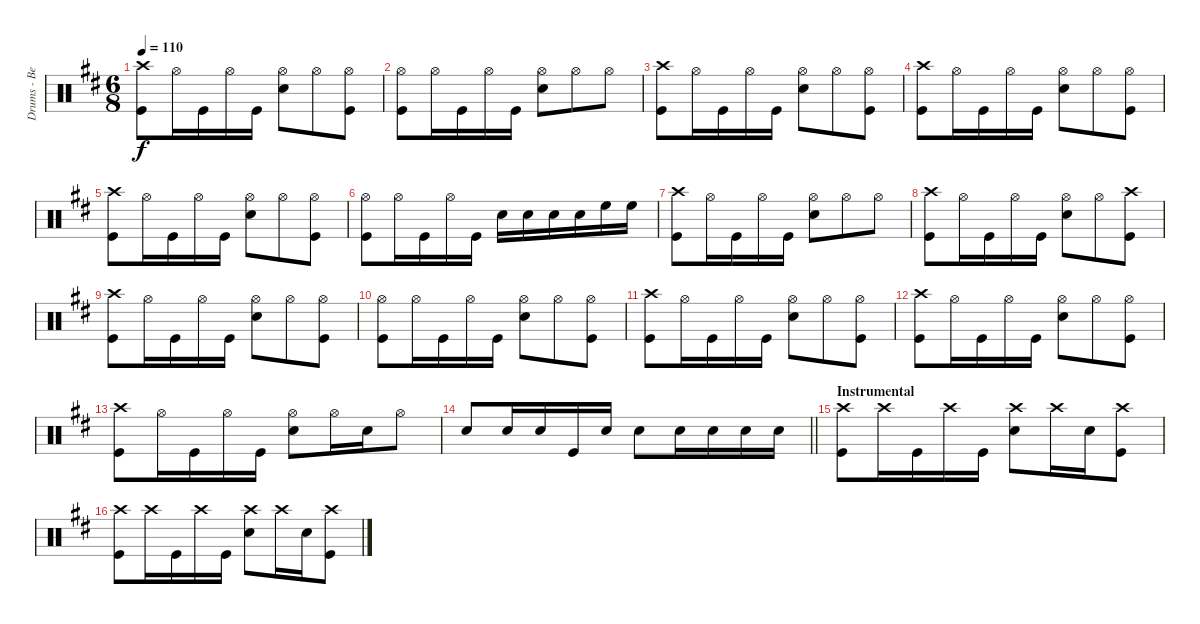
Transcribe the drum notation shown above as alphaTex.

\track ("Drums - Ben Johnston" "Drums - Be") {instrument percussion}
\staff {score}
\articulation defaults
\ts (6 8)
\tempo 110
\clef neutral
\ks d
("Crash high (hit)" "Kick (hit)").8{dy f} "Hi-Hat (open)".16 "Kick (hit)".16 "Hi-Hat (open)".16 "Kick (hit)".16 ("Hi-Hat (open)" "Snare (hit) 2").8 "Hi-Hat (open)".8 ("Hi-Hat (open)" "Kick (hit)").8 |
("Hi-Hat (open)" "Kick (hit)").8 "Hi-Hat (open)".16 "Kick (hit)".16 "Hi-Hat (open)".16 "Kick (hit)".16 ("Hi-Hat (open)" "Snare (hit) 2").8 "Hi-Hat (open)".8 "Hi-Hat (open)".8 |
("Crash high (hit)" "Kick (hit)").8 "Hi-Hat (open)".16 "Kick (hit)".16 "Hi-Hat (open)".16 "Kick (hit)".16 ("Hi-Hat (open)" "Snare (hit) 2").8 "Hi-Hat (open)".8 ("Hi-Hat (open)" "Kick (hit)").8 |
("Crash high (hit)" "Kick (hit)").8 "Hi-Hat (open)".16 "Kick (hit)".16 "Hi-Hat (open)".16 "Kick (hit)".16 ("Hi-Hat (open)" "Snare (hit) 2").8 "Hi-Hat (open)".8 ("Hi-Hat (open)" "Kick (hit)").8 |
("Crash high (hit)" "Kick (hit)").8 "Hi-Hat (open)".16 "Kick (hit)".16 "Hi-Hat (open)".16 "Kick (hit)".16 ("Hi-Hat (open)" "Snare (hit) 2").8 "Hi-Hat (open)".8 ("Hi-Hat (open)" "Kick (hit)").8 |
("Hi-Hat (open)" "Kick (hit)").8 "Hi-Hat (open)".16 "Kick (hit)".16 "Hi-Hat (open)".16 "Kick (hit)".16 "Snare (hit) 2".16 "Snare (hit) 2".16 "Snare (hit) 2".16 "Snare (hit) 2".16 "High Floor Tom (hit)".16 "High Floor Tom (hit)".16 |
("Crash high (hit)" "Kick (hit)").8 "Hi-Hat (open)".16 "Kick (hit)".16 "Hi-Hat (open)".16 "Kick (hit)".16 ("Hi-Hat (open)" "Snare (hit) 2").8 "Hi-Hat (open)".8 "Hi-Hat (open)".8 |
("Crash high (hit)" "Kick (hit)").8 "Hi-Hat (open)".16 "Kick (hit)".16 "Hi-Hat (open)".16 "Kick (hit)".16 ("Hi-Hat (open)" "Snare (hit) 2").8 "Hi-Hat (open)".8 ("Crash high (hit)" "Kick (hit)").8 |
("Crash high (hit)" "Kick (hit)").8 "Hi-Hat (open)".16 "Kick (hit)".16 "Hi-Hat (open)".16 "Kick (hit)".16 ("Hi-Hat (open)" "Snare (hit) 2").8 "Hi-Hat (open)".8 ("Hi-Hat (open)" "Kick (hit)").8 |
("Hi-Hat (open)" "Kick (hit)").8 "Hi-Hat (open)".16 "Kick (hit)".16 "Hi-Hat (open)".16 "Kick (hit)".16 ("Hi-Hat (open)" "Snare (hit) 2").8 "Hi-Hat (open)".8 ("Hi-Hat (open)" "Kick (hit)").8 |
("Crash high (hit)" "Kick (hit)").8 "Hi-Hat (open)".16 "Kick (hit)".16 "Hi-Hat (open)".16 "Kick (hit)".16 ("Hi-Hat (open)" "Snare (hit) 2").8 "Hi-Hat (open)".8 ("Hi-Hat (open)" "Kick (hit)").8 |
("Crash high (hit)" "Kick (hit)").8 "Hi-Hat (open)".16 "Kick (hit)".16 "Hi-Hat (open)".16 "Kick (hit)".16 ("Hi-Hat (open)" "Snare (hit) 2").8 "Hi-Hat (open)".8 ("Hi-Hat (open)" "Kick (hit)").8 |
("Crash high (hit)" "Kick (hit)").8 "Hi-Hat (open)".16 "Kick (hit)".16 "Hi-Hat (open)".16 "Kick (hit)".16 ("Hi-Hat (open)" "Snare (hit) 2").8 "Hi-Hat (open)".16 "Snare (hit) 2".16 "Hi-Hat (open)".8 |
\barLineRight lightlight "Snare (hit) 2".8 "Snare (hit) 2".16 "Snare (hit) 2".16 "Kick (hit)".16 "Snare (hit) 2".16 "Snare (hit) 2".8 "Snare (hit) 2".16 "Snare (hit) 2".16 "Snare (hit) 2".16 "Snare (hit) 2".16
|
\section ("" "Instrumental")
("Crash high (hit)" "Kick (hit)").8 "Crash high (hit)".16 "Kick (hit)".16 "Crash high (hit)".16 "Kick (hit)".16 ("Crash high (hit)" "Snare (hit) 2").8 "Crash high (hit)".16 "Snare (hit) 2".16 ("Crash high (hit)" "Kick (hit)").8 |
("Crash high (hit)" "Kick (hit)").8 "Crash high (hit)".16 "Kick (hit)".16 "Crash high (hit)".16 "Kick (hit)".16 ("Crash high (hit)" "Snare (hit) 2").8 "Crash high (hit)".16 "Snare (hit) 2".16 ("Crash high (hit)" "Kick (hit)").8
